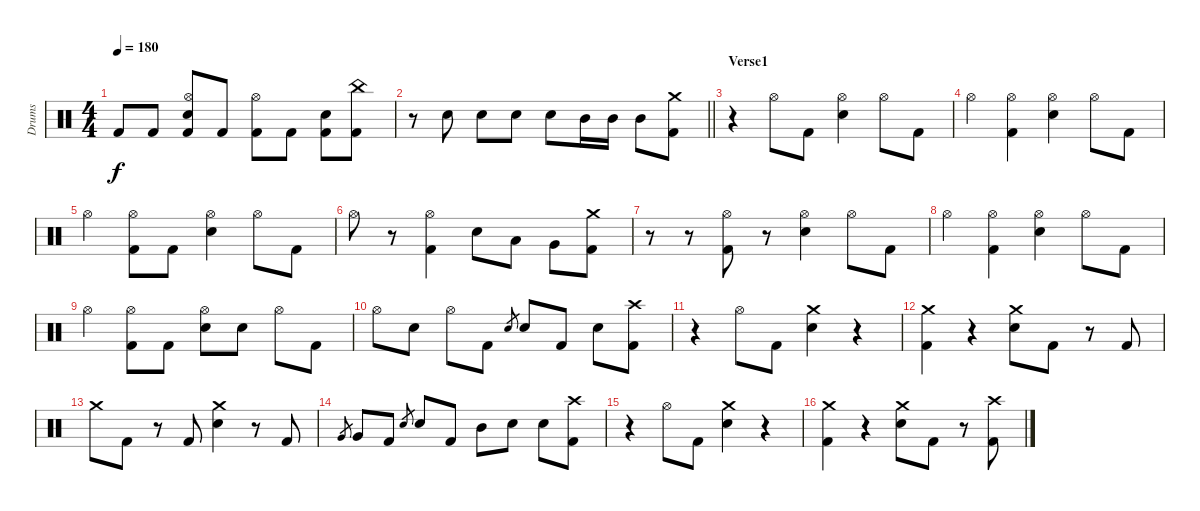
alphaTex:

\track ("Drums" "Drums") {instrument percussion}
\staff {score}
\articulation defaults
\ts (4 4)
\tempo 180
\clef neutral
\ks c "Kick (hit) 2".8{dy f} "Kick (hit) 2".8
("Hi-Hat (open)" "Electric Snare (hit)" "Kick (hit) 2").8 "Kick (hit) 2".8 ("Hi-Hat (open)" "Kick (hit) 2").8 "Kick (hit) 2".8 ("Electric Snare (hit)" "Kick (hit) 2").8 ("China (hit)" "Kick (hit) 2").8 |
\barLineRight lightlight
r.8 "Electric Snare (hit)".8 "Electric Snare (hit)".8 "Electric Snare (hit)".8 "Electric Snare (hit)".8 "Mid Tom (hit)".16 "Mid Tom (hit)".16 "Mid Tom (hit)".8 ("Crash medium (hit)" "Kick (hit) 2").8 |
\section ("" "Verse1")
r.4 "Hi-Hat (open)".8 "Kick (hit) 2".8 ("Hi-Hat (open)" "Electric Snare (hit)").4 "Hi-Hat (open)".8 "Kick (hit) 2".8 |
"Hi-Hat (open)".4 ("Hi-Hat (open)" "Kick (hit) 2").4 ("Hi-Hat (open)" "Electric Snare (hit)").4 "Hi-Hat (open)".8 "Kick (hit) 2".8 |
"Hi-Hat (open)".4 ("Hi-Hat (open)" "Kick (hit) 2").8 "Kick (hit) 2".8 ("Hi-Hat (open)" "Electric Snare (hit)").4 "Hi-Hat (open)".8 "Kick (hit) 2".8 |
"Hi-Hat (open)".8 r.8 ("Hi-Hat (open)" "Kick (hit) 2").4 "Electric Snare (hit)".8 "Low Tom (hit)".8 "Very Low Tom (hit)".8 ("Crash medium (hit)" "Kick (hit) 2").8 |
r.8 r.8 ("Hi-Hat (open)" "Kick (hit) 2").8 r.8 ("Hi-Hat (open)" "Electric Snare (hit)").4 "Hi-Hat (open)".8 "Kick (hit) 2".8 |
"Hi-Hat (open)".4 ("Hi-Hat (open)" "Kick (hit) 2").4 ("Hi-Hat (open)" "Electric Snare (hit)").4 "Hi-Hat (open)".8 "Kick (hit) 2".8 |
"Hi-Hat (open)".4 ("Hi-Hat (open)" "Kick (hit) 2").8 "Kick (hit) 2".8 ("Hi-Hat (open)" "Electric Snare (hit)").8 "Electric Snare (hit)".8 "Hi-Hat (open)".8 "Kick (hit) 2".8 |
"Hi-Hat (open)".8 "Electric Snare (hit)".8 "Hi-Hat (open)".8 "Kick (hit) 2".8 "Electric Snare (hit)".8{gr} "Electric Snare (hit)".8 "Kick (hit) 2".8 "Electric Snare (hit)".8 ("Crash high (hit)" "Kick (hit) 2").8 |
r.4 "Hi-Hat (open)".8 "Kick (hit) 2".8 ("Crash medium (hit)" "Electric Snare (hit)").4 r.4 |
("Crash medium (hit)" "Kick (hit) 2").4 r.4 ("Crash medium (hit)" "Electric Snare (hit)").8 "Kick (hit) 2".8 r.8 "Kick (hit) 2".8 |
"Crash medium (hit)".8 "Kick (hit) 2".8 r.8 "Kick (hit) 2".8 ("Crash medium (hit)" "Electric Snare (hit)").4 r.8 "Kick (hit) 2".8 |
"Very Low Tom (hit)".8{gr} "Very Low Tom (hit)".8 "Kick (hit) 2".8 "Electric Snare (hit)".8{gr} "Electric Snare (hit)".8 "Kick (hit) 2".8 "Mid Tom (hit)".8 "Electric Snare (hit)".8 "Electric Snare (hit)".8 ("Crash high (hit)" "Kick (hit) 2").8 |
r.4 "Hi-Hat (open)".8 "Kick (hit) 2".8 ("Crash medium (hit)" "Electric Snare (hit)").4 r.4 |
("Crash medium (hit)" "Kick (hit) 2").4 r.4 ("Crash medium (hit)" "Electric Snare (hit)").8 "Kick (hit) 2".8 r.8 ("Crash high (hit)" "Kick (hit) 2").8
